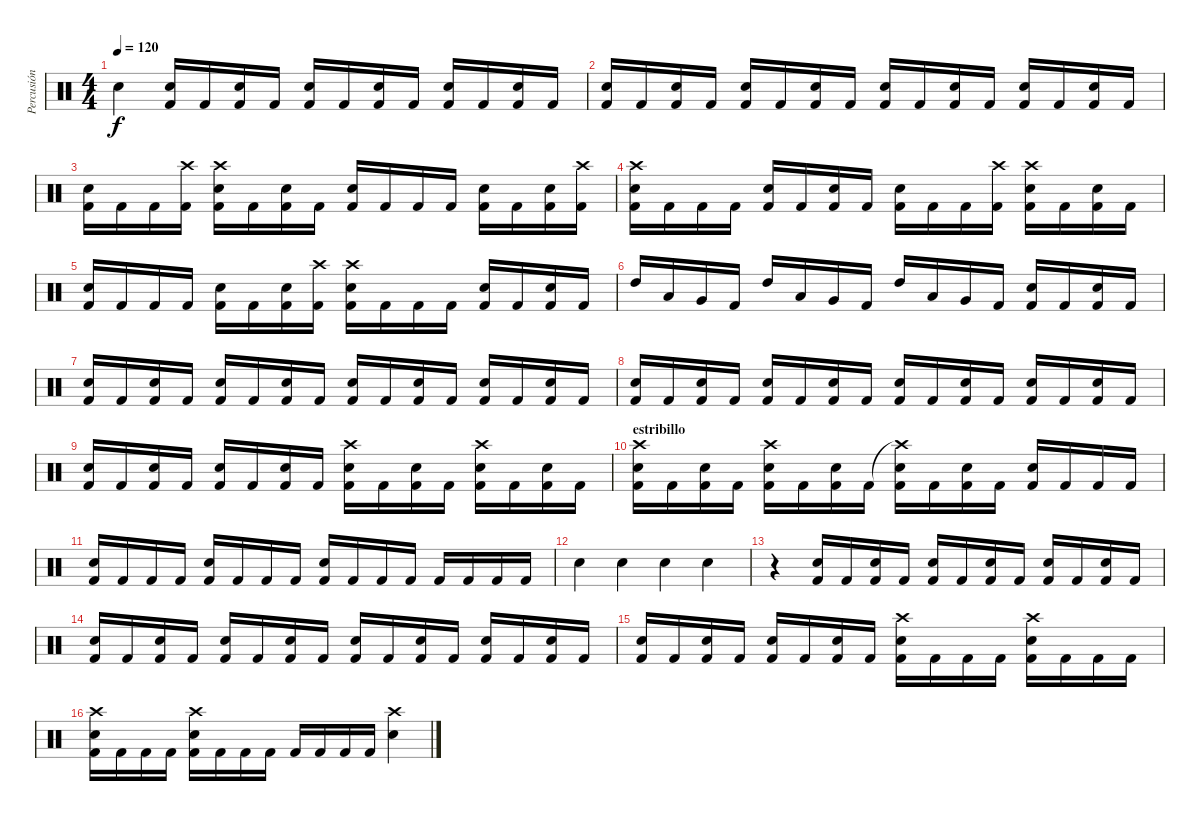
\track ("Percusión" "Percusión") {instrument percussion}
\staff {score}
\articulation defaults
\ts (4 4)
\tempo 120
\clef neutral
\ks c "Electric Snare (hit)".4{dy f}
("Kick (hit) 2" "Electric Snare (hit)").16 "Kick (hit) 2".16 ("Kick (hit) 2" "Electric Snare (hit)").16 "Kick (hit) 2".16 ("Kick (hit) 2" "Electric Snare (hit)").16 "Kick (hit) 2".16 ("Kick (hit) 2" "Electric Snare (hit)").16 "Kick (hit) 2".16 ("Kick (hit) 2" "Electric Snare (hit)").16 "Kick (hit) 2".16 ("Kick (hit) 2" "Electric Snare (hit)").16 "Kick (hit) 2".16 |
("Kick (hit) 2" "Electric Snare (hit)").16 "Kick (hit) 2".16 ("Kick (hit) 2" "Electric Snare (hit)").16 "Kick (hit) 2".16 ("Kick (hit) 2" "Electric Snare (hit)").16 "Kick (hit) 2".16 ("Kick (hit) 2" "Electric Snare (hit)").16 "Kick (hit) 2".16 ("Kick (hit) 2" "Electric Snare (hit)").16 "Kick (hit) 2".16 ("Kick (hit) 2" "Electric Snare (hit)").16 "Kick (hit) 2".16 ("Kick (hit) 2" "Electric Snare (hit)").16 "Kick (hit) 2".16 ("Kick (hit) 2" "Electric Snare (hit)").16 "Kick (hit) 2".16 |
("Kick (hit) 2" "Electric Snare (hit)").16 "Kick (hit) 2".16 "Kick (hit) 2".16 ("Crash high (hit)" "Kick (hit) 2").16 ("Crash high (hit)" "Kick (hit) 2" "Electric Snare (hit)").16 "Kick (hit) 2".16 ("Kick (hit) 2" "Electric Snare (hit)").16 "Kick (hit) 2".16 ("Kick (hit) 2" "Electric Snare (hit)").16 "Kick (hit) 2".16 "Kick (hit) 2".16 "Kick (hit) 2".16 ("Kick (hit) 2" "Electric Snare (hit)").16 "Kick (hit) 2".16 ("Kick (hit) 2" "Electric Snare (hit)").16 ("Crash high (hit)" "Kick (hit) 2").16 |
("Crash high (hit)" "Kick (hit) 2" "Electric Snare (hit)").16 "Kick (hit) 2".16 "Kick (hit) 2".16 "Kick (hit) 2".16 ("Kick (hit) 2" "Electric Snare (hit)").16 "Kick (hit) 2".16 ("Kick (hit) 2" "Electric Snare (hit)").16 "Kick (hit) 2".16 ("Kick (hit) 2" "Electric Snare (hit)").16 "Kick (hit) 2".16 "Kick (hit) 2".16 ("Crash high (hit)" "Kick (hit) 2").16 ("Crash high (hit)" "Kick (hit) 2" "Electric Snare (hit)").16 "Kick (hit) 2".16 ("Kick (hit) 2" "Electric Snare (hit)").16 "Kick (hit) 2".16 |
("Kick (hit) 2" "Electric Snare (hit)").16 "Kick (hit) 2".16 "Kick (hit) 2".16 "Kick (hit) 2".16 ("Kick (hit) 2" "Electric Snare (hit)").16 "Kick (hit) 2".16 ("Kick (hit) 2" "Electric Snare (hit)").16 ("Crash high (hit)" "Kick (hit) 2").16 ("Crash high (hit)" "Kick (hit) 2" "Electric Snare (hit)").16 "Kick (hit) 2".16 "Kick (hit) 2".16 "Kick (hit) 2".16 ("Kick (hit) 2" "Electric Snare (hit)").16 "Kick (hit) 2".16 ("Kick (hit) 2" "Electric Snare (hit)").16 "Kick (hit) 2".16 |
"High Tom (hit)".16 "Low Tom (hit)".16 "Very Low Tom (hit)".16 "Kick (hit) 2".16 "High Tom (hit)".16 "Low Tom (hit)".16 "Very Low Tom (hit)".16 "Kick (hit) 2".16 "High Tom (hit)".16 "Low Tom (hit)".16 "Very Low Tom (hit)".16 "Kick (hit) 2".16 ("Kick (hit) 2" "Electric Snare (hit)").16 "Kick (hit) 2".16 ("Kick (hit) 2" "Electric Snare (hit)").16 "Kick (hit) 2".16 |
("Kick (hit) 2" "Electric Snare (hit)").16 "Kick (hit) 2".16 ("Kick (hit) 2" "Electric Snare (hit)").16 "Kick (hit) 2".16 ("Kick (hit) 2" "Electric Snare (hit)").16 "Kick (hit) 2".16 ("Kick (hit) 2" "Electric Snare (hit)").16 "Kick (hit) 2".16 ("Kick (hit) 2" "Electric Snare (hit)").16 "Kick (hit) 2".16 ("Kick (hit) 2" "Electric Snare (hit)").16 "Kick (hit) 2".16 ("Kick (hit) 2" "Electric Snare (hit)").16 "Kick (hit) 2".16 ("Kick (hit) 2" "Electric Snare (hit)").16 "Kick (hit) 2".16 |
("Kick (hit) 2" "Electric Snare (hit)").16 "Kick (hit) 2".16 ("Kick (hit) 2" "Electric Snare (hit)").16 "Kick (hit) 2".16 ("Kick (hit) 2" "Electric Snare (hit)").16 "Kick (hit) 2".16 ("Kick (hit) 2" "Electric Snare (hit)").16 "Kick (hit) 2".16 ("Kick (hit) 2" "Electric Snare (hit)").16 "Kick (hit) 2".16 ("Kick (hit) 2" "Electric Snare (hit)").16 "Kick (hit) 2".16 ("Kick (hit) 2" "Electric Snare (hit)").16 "Kick (hit) 2".16 ("Kick (hit) 2" "Electric Snare (hit)").16 "Kick (hit) 2".16 |
("Kick (hit) 2" "Electric Snare (hit)").16 "Kick (hit) 2".16 ("Kick (hit) 2" "Electric Snare (hit)").16 "Kick (hit) 2".16 ("Kick (hit) 2" "Electric Snare (hit)").16 "Kick (hit) 2".16 ("Kick (hit) 2" "Electric Snare (hit)").16 "Kick (hit) 2".16 ("Crash high (hit)" "Kick (hit) 2" "Electric Snare (hit)").16 "Kick (hit) 2".16 ("Kick (hit) 2" "Electric Snare (hit)").16 "Kick (hit) 2".16 ("Crash high (hit)" "Kick (hit) 2" "Electric Snare (hit)").16 "Kick (hit) 2".16 ("Kick (hit) 2" "Electric Snare (hit)").16 "Kick (hit) 2".16 |
\section ("" "estribillo")
("Crash high (hit)" "Kick (hit) 2" "Electric Snare (hit)").16 "Kick (hit) 2".16 ("Kick (hit) 2" "Electric Snare (hit)").16 "Kick (hit) 2".16 ("Crash high (hit)" "Kick (hit) 2" "Electric Snare (hit)").16 "Kick (hit) 2".16 ("Kick (hit) 2" "Electric Snare (hit)").16 "Kick (hit) 2".16 ("Crash high (hit)"{t} "Kick (hit) 2" "Electric Snare (hit)").16 "Kick (hit) 2".16 ("Kick (hit) 2" "Electric Snare (hit)").16 "Kick (hit) 2".16 ("Kick (hit) 2" "Electric Snare (hit)").16 "Kick (hit) 2".16 "Kick (hit) 2".16 "Kick (hit) 2".16 |
("Kick (hit) 2" "Electric Snare (hit)").16 "Kick (hit) 2".16 "Kick (hit) 2".16 "Kick (hit) 2".16 ("Kick (hit) 2" "Electric Snare (hit)").16 "Kick (hit) 2".16 "Kick (hit) 2".16 "Kick (hit) 2".16 ("Kick (hit) 2" "Electric Snare (hit)").16 "Kick (hit) 2".16 "Kick (hit) 2".16 "Kick (hit) 2".16 "Kick (hit) 2".16 "Kick (hit) 2".16 "Kick (hit) 2".16 "Kick (hit) 2".16 |
"Electric Snare (hit)".4 "Electric Snare (hit)".4 "Electric Snare (hit)".4 "Electric Snare (hit)".4 |
r.4 ("Kick (hit) 2" "Electric Snare (hit)").16 "Kick (hit) 2".16 ("Kick (hit) 2" "Electric Snare (hit)").16 "Kick (hit) 2".16 ("Kick (hit) 2" "Electric Snare (hit)").16 "Kick (hit) 2".16 ("Kick (hit) 2" "Electric Snare (hit)").16 "Kick (hit) 2".16 ("Kick (hit) 2" "Electric Snare (hit)").16 "Kick (hit) 2".16 ("Kick (hit) 2" "Electric Snare (hit)").16 "Kick (hit) 2".16 |
("Kick (hit) 2" "Electric Snare (hit)").16 "Kick (hit) 2".16 ("Kick (hit) 2" "Electric Snare (hit)").16 "Kick (hit) 2".16 ("Kick (hit) 2" "Electric Snare (hit)").16 "Kick (hit) 2".16 ("Kick (hit) 2" "Electric Snare (hit)").16 "Kick (hit) 2".16 ("Kick (hit) 2" "Electric Snare (hit)").16 "Kick (hit) 2".16 ("Kick (hit) 2" "Electric Snare (hit)").16 "Kick (hit) 2".16 ("Kick (hit) 2" "Electric Snare (hit)").16 "Kick (hit) 2".16 ("Kick (hit) 2" "Electric Snare (hit)").16 "Kick (hit) 2".16 |
("Kick (hit) 2" "Electric Snare (hit)").16 "Kick (hit) 2".16 ("Kick (hit) 2" "Electric Snare (hit)").16 "Kick (hit) 2".16 ("Kick (hit) 2" "Electric Snare (hit)").16 "Kick (hit) 2".16 ("Kick (hit) 2" "Electric Snare (hit)").16 "Kick (hit) 2".16 ("Crash high (hit)" "Kick (hit) 2" "Electric Snare (hit)").16 "Kick (hit) 2".16 "Kick (hit) 2".16 "Kick (hit) 2".16 ("Crash high (hit)" "Kick (hit) 2" "Electric Snare (hit)").16 "Kick (hit) 2".16 "Kick (hit) 2".16 "Kick (hit) 2".16 |
("Crash high (hit)" "Kick (hit) 2" "Electric Snare (hit)").16 "Kick (hit) 2".16 "Kick (hit) 2".16 "Kick (hit) 2".16 ("Crash high (hit)" "Kick (hit) 2" "Electric Snare (hit)").16 "Kick (hit) 2".16 "Kick (hit) 2".16 "Kick (hit) 2".16 "Kick (hit) 2".16 "Kick (hit) 2".16 "Kick (hit) 2".16 "Kick (hit) 2".16 ("Crash high (hit)" "Electric Snare (hit)").4
